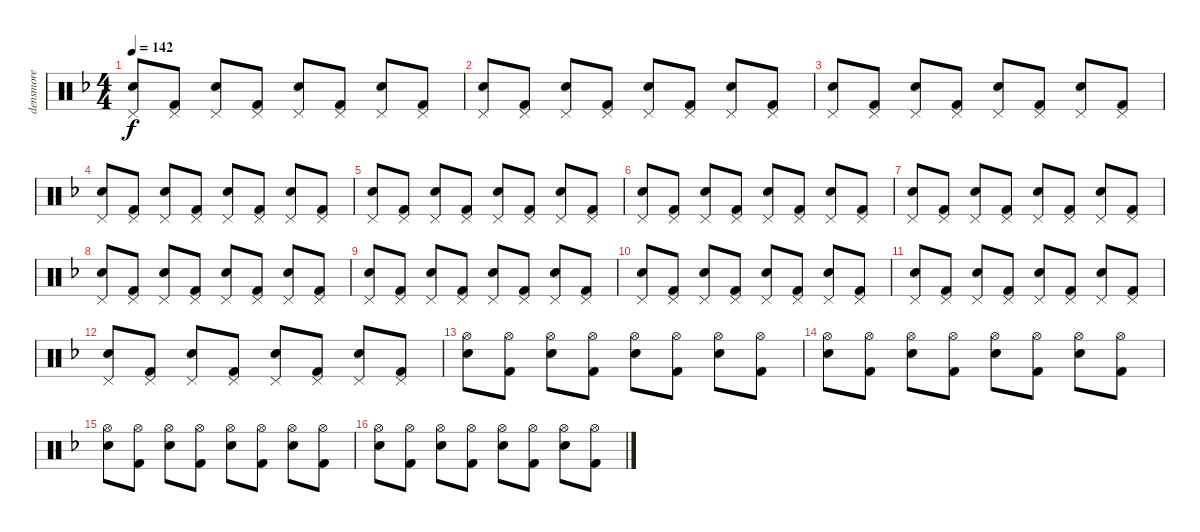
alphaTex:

\track ("densmore" "densmore") {instrument percussion}
\staff {score}
\articulation defaults
\ts (4 4)
\tempo 142
\clef neutral
\ks f
("Pedal Hi-Hat (hit)" "Electric Snare (hit)").8{dy f} ("Pedal Hi-Hat (hit)" "Kick (hit) 2").8 ("Pedal Hi-Hat (hit)" "Electric Snare (hit)").8 ("Pedal Hi-Hat (hit)" "Kick (hit) 2").8 ("Pedal Hi-Hat (hit)" "Electric Snare (hit)").8 ("Pedal Hi-Hat (hit)" "Kick (hit) 2").8 ("Pedal Hi-Hat (hit)" "Electric Snare (hit)").8 ("Pedal Hi-Hat (hit)" "Kick (hit) 2").8 |
("Pedal Hi-Hat (hit)" "Electric Snare (hit)").8 ("Pedal Hi-Hat (hit)" "Kick (hit) 2").8 ("Pedal Hi-Hat (hit)" "Electric Snare (hit)").8 ("Pedal Hi-Hat (hit)" "Kick (hit) 2").8 ("Pedal Hi-Hat (hit)" "Electric Snare (hit)").8 ("Pedal Hi-Hat (hit)" "Kick (hit) 2").8 ("Pedal Hi-Hat (hit)" "Electric Snare (hit)").8 ("Pedal Hi-Hat (hit)" "Kick (hit) 2").8 |
("Pedal Hi-Hat (hit)" "Electric Snare (hit)").8 ("Pedal Hi-Hat (hit)" "Kick (hit) 2").8 ("Pedal Hi-Hat (hit)" "Electric Snare (hit)").8 ("Pedal Hi-Hat (hit)" "Kick (hit) 2").8 ("Pedal Hi-Hat (hit)" "Electric Snare (hit)").8 ("Pedal Hi-Hat (hit)" "Kick (hit) 2").8 ("Pedal Hi-Hat (hit)" "Electric Snare (hit)").8 ("Pedal Hi-Hat (hit)" "Kick (hit) 2").8 |
("Pedal Hi-Hat (hit)" "Electric Snare (hit)").8 ("Pedal Hi-Hat (hit)" "Kick (hit) 2").8 ("Pedal Hi-Hat (hit)" "Electric Snare (hit)").8 ("Pedal Hi-Hat (hit)" "Kick (hit) 2").8 ("Pedal Hi-Hat (hit)" "Electric Snare (hit)").8 ("Pedal Hi-Hat (hit)" "Kick (hit) 2").8 ("Pedal Hi-Hat (hit)" "Electric Snare (hit)").8 ("Pedal Hi-Hat (hit)" "Kick (hit) 2").8 |
("Pedal Hi-Hat (hit)" "Electric Snare (hit)").8 ("Pedal Hi-Hat (hit)" "Kick (hit) 2").8 ("Pedal Hi-Hat (hit)" "Electric Snare (hit)").8 ("Pedal Hi-Hat (hit)" "Kick (hit) 2").8 ("Pedal Hi-Hat (hit)" "Electric Snare (hit)").8 ("Pedal Hi-Hat (hit)" "Kick (hit) 2").8 ("Pedal Hi-Hat (hit)" "Electric Snare (hit)").8 ("Pedal Hi-Hat (hit)" "Kick (hit) 2").8 |
("Pedal Hi-Hat (hit)" "Electric Snare (hit)").8 ("Pedal Hi-Hat (hit)" "Kick (hit) 2").8 ("Pedal Hi-Hat (hit)" "Electric Snare (hit)").8 ("Pedal Hi-Hat (hit)" "Kick (hit) 2").8 ("Pedal Hi-Hat (hit)" "Electric Snare (hit)").8 ("Pedal Hi-Hat (hit)" "Kick (hit) 2").8 ("Pedal Hi-Hat (hit)" "Electric Snare (hit)").8 ("Pedal Hi-Hat (hit)" "Kick (hit) 2").8 |
("Pedal Hi-Hat (hit)" "Electric Snare (hit)").8 ("Pedal Hi-Hat (hit)" "Kick (hit) 2").8 ("Pedal Hi-Hat (hit)" "Electric Snare (hit)").8 ("Pedal Hi-Hat (hit)" "Kick (hit) 2").8 ("Pedal Hi-Hat (hit)" "Electric Snare (hit)").8 ("Pedal Hi-Hat (hit)" "Kick (hit) 2").8 ("Pedal Hi-Hat (hit)" "Electric Snare (hit)").8 ("Pedal Hi-Hat (hit)" "Kick (hit) 2").8 |
("Pedal Hi-Hat (hit)" "Electric Snare (hit)").8 ("Pedal Hi-Hat (hit)" "Kick (hit) 2").8 ("Pedal Hi-Hat (hit)" "Electric Snare (hit)").8 ("Pedal Hi-Hat (hit)" "Kick (hit) 2").8 ("Pedal Hi-Hat (hit)" "Electric Snare (hit)").8 ("Pedal Hi-Hat (hit)" "Kick (hit) 2").8 ("Pedal Hi-Hat (hit)" "Electric Snare (hit)").8 ("Pedal Hi-Hat (hit)" "Kick (hit) 2").8 |
("Pedal Hi-Hat (hit)" "Electric Snare (hit)").8 ("Pedal Hi-Hat (hit)" "Kick (hit) 2").8 ("Pedal Hi-Hat (hit)" "Electric Snare (hit)").8 ("Pedal Hi-Hat (hit)" "Kick (hit) 2").8 ("Pedal Hi-Hat (hit)" "Electric Snare (hit)").8 ("Pedal Hi-Hat (hit)" "Kick (hit) 2").8 ("Pedal Hi-Hat (hit)" "Electric Snare (hit)").8 ("Pedal Hi-Hat (hit)" "Kick (hit) 2").8 |
("Pedal Hi-Hat (hit)" "Electric Snare (hit)").8 ("Pedal Hi-Hat (hit)" "Kick (hit) 2").8 ("Pedal Hi-Hat (hit)" "Electric Snare (hit)").8 ("Pedal Hi-Hat (hit)" "Kick (hit) 2").8 ("Pedal Hi-Hat (hit)" "Electric Snare (hit)").8 ("Pedal Hi-Hat (hit)" "Kick (hit) 2").8 ("Pedal Hi-Hat (hit)" "Electric Snare (hit)").8 ("Pedal Hi-Hat (hit)" "Kick (hit) 2").8 |
("Pedal Hi-Hat (hit)" "Electric Snare (hit)").8 ("Pedal Hi-Hat (hit)" "Kick (hit) 2").8 ("Pedal Hi-Hat (hit)" "Electric Snare (hit)").8 ("Pedal Hi-Hat (hit)" "Kick (hit) 2").8 ("Pedal Hi-Hat (hit)" "Electric Snare (hit)").8 ("Pedal Hi-Hat (hit)" "Kick (hit) 2").8 ("Pedal Hi-Hat (hit)" "Electric Snare (hit)").8 ("Pedal Hi-Hat (hit)" "Kick (hit) 2").8 |
("Pedal Hi-Hat (hit)" "Electric Snare (hit)").8 ("Pedal Hi-Hat (hit)" "Kick (hit) 2").8 ("Pedal Hi-Hat (hit)" "Electric Snare (hit)").8 ("Pedal Hi-Hat (hit)" "Kick (hit) 2").8 ("Pedal Hi-Hat (hit)" "Electric Snare (hit)").8 ("Pedal Hi-Hat (hit)" "Kick (hit) 2").8 ("Pedal Hi-Hat (hit)" "Electric Snare (hit)").8 ("Pedal Hi-Hat (hit)" "Kick (hit) 2").8 |
("Hi-Hat (open)" "Electric Snare (hit)").8 ("Hi-Hat (open)" "Kick (hit) 2").8 ("Hi-Hat (open)" "Electric Snare (hit)").8 ("Hi-Hat (open)" "Kick (hit) 2").8 ("Hi-Hat (open)" "Electric Snare (hit)").8 ("Hi-Hat (open)" "Kick (hit) 2").8 ("Hi-Hat (open)" "Electric Snare (hit)").8 ("Hi-Hat (open)" "Kick (hit) 2").8 |
("Hi-Hat (open)" "Electric Snare (hit)").8 ("Hi-Hat (open)" "Kick (hit) 2").8 ("Hi-Hat (open)" "Electric Snare (hit)").8 ("Hi-Hat (open)" "Kick (hit) 2").8 ("Hi-Hat (open)" "Electric Snare (hit)").8 ("Hi-Hat (open)" "Kick (hit) 2").8 ("Hi-Hat (open)" "Electric Snare (hit)").8 ("Hi-Hat (open)" "Kick (hit) 2").8 |
("Hi-Hat (open)" "Electric Snare (hit)").8 ("Hi-Hat (open)" "Kick (hit) 2").8 ("Hi-Hat (open)" "Electric Snare (hit)").8 ("Hi-Hat (open)" "Kick (hit) 2").8 ("Hi-Hat (open)" "Electric Snare (hit)").8 ("Hi-Hat (open)" "Kick (hit) 2").8 ("Hi-Hat (open)" "Electric Snare (hit)").8 ("Hi-Hat (open)" "Kick (hit) 2").8 |
("Hi-Hat (open)" "Electric Snare (hit)").8 ("Hi-Hat (open)" "Kick (hit) 2").8 ("Hi-Hat (open)" "Electric Snare (hit)").8 ("Hi-Hat (open)" "Kick (hit) 2").8 ("Hi-Hat (open)" "Electric Snare (hit)").8 ("Hi-Hat (open)" "Kick (hit) 2").8 ("Hi-Hat (open)" "Electric Snare (hit)").8 ("Hi-Hat (open)" "Kick (hit) 2").8
